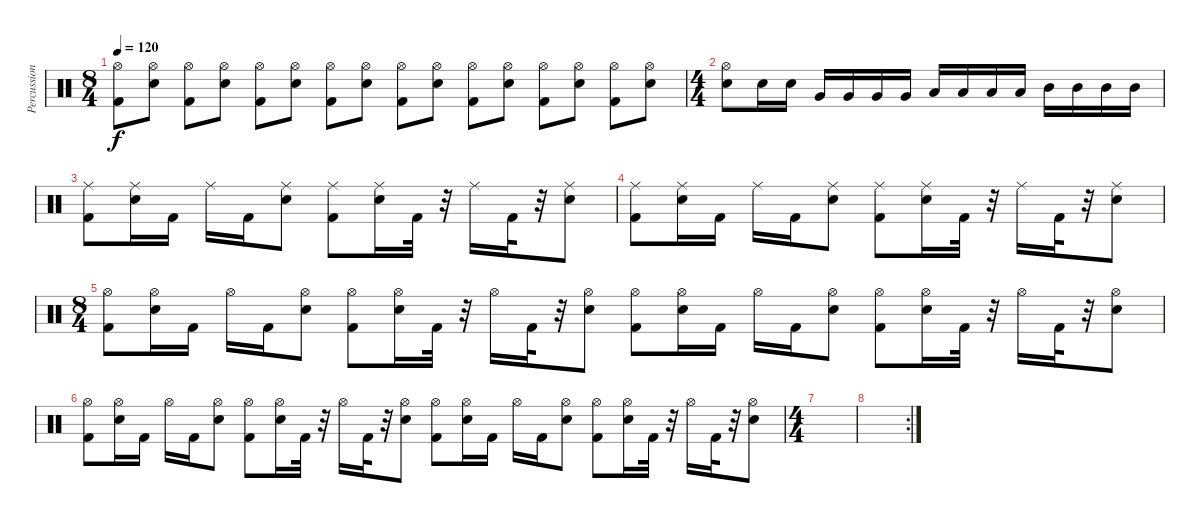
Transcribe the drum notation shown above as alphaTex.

\track ("Percussions" "Percussion") {instrument percussion}
\staff {score}
\articulation defaults
\ts (8 4)
\tempo 120
\clef neutral
\ks c
("Kick (hit) 2" "Hi-Hat (open)").8{dy f} ("Electric Snare (hit)" "Hi-Hat (open)").8 ("Kick (hit) 2" "Hi-Hat (open)").8 ("Electric Snare (hit)" "Hi-Hat (open)").8 ("Kick (hit) 2" "Hi-Hat (open)").8 ("Electric Snare (hit)" "Hi-Hat (open)").8 ("Kick (hit) 2" "Hi-Hat (open)").8 ("Electric Snare (hit)" "Hi-Hat (open)").8 ("Kick (hit) 2" "Hi-Hat (open)").8 ("Electric Snare (hit)" "Hi-Hat (open)").8 ("Kick (hit) 2" "Hi-Hat (open)").8 ("Electric Snare (hit)" "Hi-Hat (open)").8 ("Kick (hit) 2" "Hi-Hat (open)").8 ("Electric Snare (hit)" "Hi-Hat (open)").8 ("Kick (hit) 2" "Hi-Hat (open)").8 ("Electric Snare (hit)" "Hi-Hat (open)").8 |
\ts (4 4)
("Hi-Hat (open)" "Snare (hit) 2").8 "Snare (hit) 2".16 "Snare (hit) 2".16 "Very Low Tom (hit)".16 "Very Low Tom (hit)".16 "Very Low Tom (hit)".16 "Very Low Tom (hit)".16 "Low Tom (hit)".16 "Low Tom (hit)".16 "Low Tom (hit)".16 "Low Tom (hit)".16 "Mid Tom (hit)".16 "Mid Tom (hit)".16 "Mid Tom (hit)".16 "Mid Tom (hit)".16 |
("Ride (middle)" "Kick (hit) 2").8 ("Ride (middle)" "Electric Snare (hit)").16 "Kick (hit) 2".16 "Ride (middle)".16 "Kick (hit) 2".16 ("Ride (middle)" "Electric Snare (hit)").8 ("Ride (middle)" "Kick (hit) 2").8 ("Ride (middle)" "Electric Snare (hit)").16 "Kick (hit) 2".32 r.32 "Ride (middle)".16 "Kick (hit) 2".32 r.32 ("Ride (middle)" "Electric Snare (hit)").8 |
("Ride (middle)" "Kick (hit) 2").8 ("Ride (middle)" "Electric Snare (hit)").16 "Kick (hit) 2".16 "Ride (middle)".16 "Kick (hit) 2".16 ("Ride (middle)" "Electric Snare (hit)").8 ("Ride (middle)" "Kick (hit) 2").8 ("Ride (middle)" "Electric Snare (hit)").16 "Kick (hit) 2".32 r.32 "Ride (middle)".16 "Kick (hit) 2".32 r.32 ("Ride (middle)" "Electric Snare (hit)").8 |
\ts (8 4)
("Hi-Hat (open)" "Kick (hit) 2").8 ("Hi-Hat (open)" "Electric Snare (hit)").16 "Kick (hit) 2".16 "Hi-Hat (open)".16 "Kick (hit) 2".16 ("Hi-Hat (open)" "Electric Snare (hit)").8 ("Hi-Hat (open)" "Kick (hit) 2").8 ("Hi-Hat (open)" "Electric Snare (hit)").16 "Kick (hit) 2".32 r.32 "Hi-Hat (open)".16 "Kick (hit) 2".32 r.32 ("Hi-Hat (open)" "Electric Snare (hit)").8 ("Hi-Hat (open)" "Kick (hit) 2").8 ("Hi-Hat (open)" "Electric Snare (hit)").16 "Kick (hit) 2".16 "Hi-Hat (open)".16 "Kick (hit) 2".16 ("Hi-Hat (open)" "Electric Snare (hit)").8 ("Hi-Hat (open)" "Kick (hit) 2").8 ("Hi-Hat (open)" "Electric Snare (hit)").16 "Kick (hit) 2".32 r.32 "Hi-Hat (open)".16 "Kick (hit) 2".32 r.32 ("Hi-Hat (open)" "Electric Snare (hit)").8 |
("Hi-Hat (open)" "Kick (hit) 2").8 ("Hi-Hat (open)" "Electric Snare (hit)").16 "Kick (hit) 2".16 "Hi-Hat (open)".16 "Kick (hit) 2".16 ("Hi-Hat (open)" "Electric Snare (hit)").8 ("Hi-Hat (open)" "Kick (hit) 2").8 ("Hi-Hat (open)" "Electric Snare (hit)").16 "Kick (hit) 2".32 r.32 "Hi-Hat (open)".16 "Kick (hit) 2".32 r.32 ("Hi-Hat (open)" "Electric Snare (hit)").8 ("Hi-Hat (open)" "Kick (hit) 2").8 ("Hi-Hat (open)" "Electric Snare (hit)").16 "Kick (hit) 2".16 "Hi-Hat (open)".16 "Kick (hit) 2".16 ("Hi-Hat (open)" "Electric Snare (hit)").8 ("Hi-Hat (open)" "Kick (hit) 2").8 ("Hi-Hat (open)" "Electric Snare (hit)").16 "Kick (hit) 2".32 r.32 "Hi-Hat (open)".16 "Kick (hit) 2".32 r.32 ("Hi-Hat (open)" "Electric Snare (hit)").8 |
\ts (4 4)
|
\rc 2
